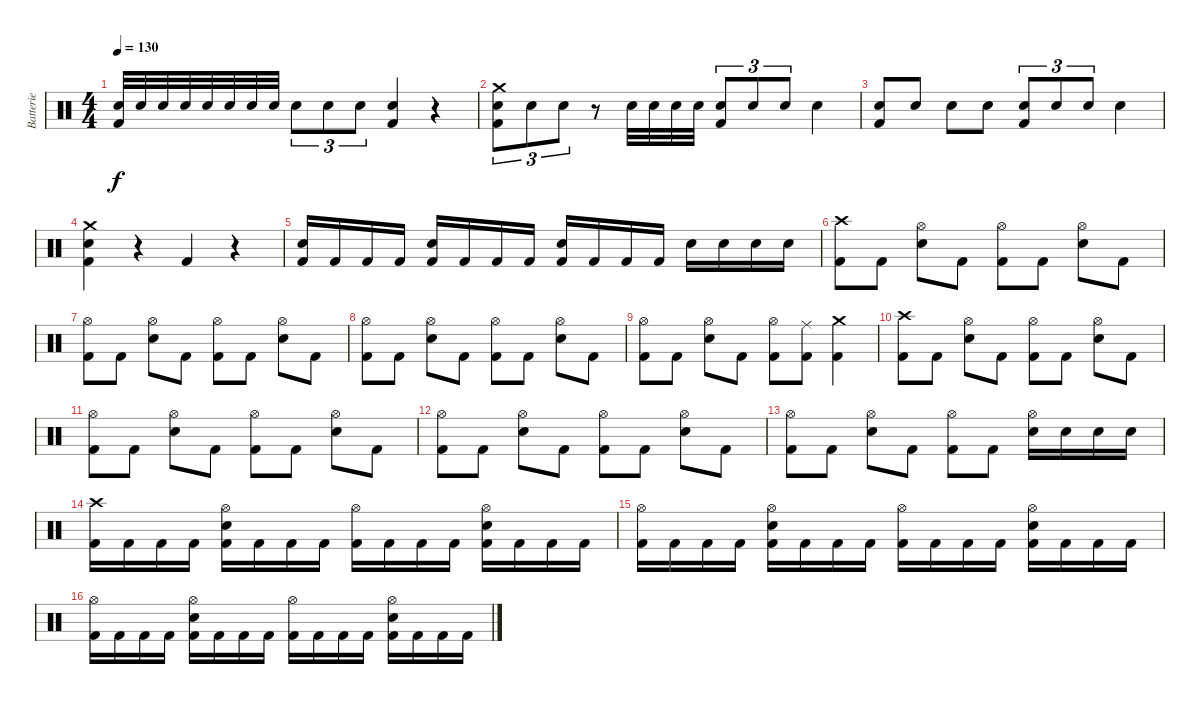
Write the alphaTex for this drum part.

\track ("Batterie" "Batterie") {instrument percussion}
\staff {score}
\articulation defaults
\ts (4 4)
\tempo 130
\clef neutral
\ks c
("Snare (hit) 2" "Kick (hit) 2").32{dy f} "Snare (hit) 2".32 "Snare (hit) 2".32 "Snare (hit) 2".32 "Snare (hit) 2".32 "Snare (hit) 2".32 "Snare (hit) 2".32 "Snare (hit) 2".32 "Snare (hit) 2".8{tu (3 2)} "Snare (hit) 2".8{tu (3 2)} "Snare (hit) 2".8{tu (3 2)} ("Snare (hit) 2" "Kick (hit) 2").4 r.4 |
("Crash medium (hit)" "Snare (hit) 2" "Kick (hit) 2").8{tu (3 2)} "Snare (hit) 2".8{tu (3 2)} "Snare (hit) 2".8{tu (3 2)} r.8 "Snare (hit) 2".32 "Snare (hit) 2".32 "Snare (hit) 2".32 "Snare (hit) 2".32 ("Snare (hit) 2" "Kick (hit) 2").8{tu (3 2)} "Snare (hit) 2".8{tu (3 2)} "Snare (hit) 2".8{tu (3 2)} "Snare (hit) 2".4 |
("Snare (hit) 2" "Kick (hit) 2").8 "Snare (hit) 2".8 "Snare (hit) 2".8 "Snare (hit) 2".8 ("Snare (hit) 2" "Kick (hit) 2").8{tu (3 2)} "Snare (hit) 2".8{tu (3 2)} "Snare (hit) 2".8{tu (3 2)} "Snare (hit) 2".4 |
("Crash medium (hit)" "Snare (hit) 2" "Kick (hit) 2").4 r.4 "Kick (hit) 2".4 r.4 |
("Snare (hit) 2" "Kick (hit) 2").16 "Kick (hit) 2".16 "Kick (hit) 2".16 "Kick (hit) 2".16 ("Snare (hit) 2" "Kick (hit) 2").16 "Kick (hit) 2".16 "Kick (hit) 2".16 "Kick (hit) 2".16 ("Snare (hit) 2" "Kick (hit) 2").16 "Kick (hit) 2".16 "Kick (hit) 2".16 "Kick (hit) 2".16 "Snare (hit) 2".16 "Snare (hit) 2".16 "Snare (hit) 2".16 "Snare (hit) 2".16 |
("Crash high (hit)" "Kick (hit) 2").8 "Kick (hit) 2".8 ("Hi-Hat (open)" "Snare (hit) 2").8 "Kick (hit) 2".8 ("Hi-Hat (open)" "Kick (hit) 2").8 "Kick (hit) 2".8 ("Hi-Hat (open)" "Snare (hit) 2").8 "Kick (hit) 2".8 |
("Hi-Hat (open)" "Kick (hit) 2").8 "Kick (hit) 2".8 ("Hi-Hat (open)" "Snare (hit) 2").8 "Kick (hit) 2".8 ("Hi-Hat (open)" "Kick (hit) 2").8 "Kick (hit) 2".8 ("Hi-Hat (open)" "Snare (hit) 2").8 "Kick (hit) 2".8 |
("Hi-Hat (open)" "Kick (hit) 2").8 "Kick (hit) 2".8 ("Hi-Hat (open)" "Snare (hit) 2").8 "Kick (hit) 2".8 ("Hi-Hat (open)" "Kick (hit) 2").8 "Kick (hit) 2".8 ("Hi-Hat (open)" "Snare (hit) 2").8 "Kick (hit) 2".8 |
("Hi-Hat (open)" "Kick (hit) 2").8 "Kick (hit) 2".8 ("Hi-Hat (open)" "Snare (hit) 2").8 "Kick (hit) 2".8 ("Hi-Hat (open)" "Kick (hit) 2").8 ("Ride (middle)" "Kick (hit) 2").8 ("Crash medium (hit)" "Kick (hit) 2").4 |
("Crash high (hit)" "Kick (hit) 2").8 "Kick (hit) 2".8 ("Hi-Hat (open)" "Snare (hit) 2").8 "Kick (hit) 2".8 ("Hi-Hat (open)" "Kick (hit) 2").8 "Kick (hit) 2".8 ("Hi-Hat (open)" "Snare (hit) 2").8 "Kick (hit) 2".8 |
("Hi-Hat (open)" "Kick (hit) 2").8 "Kick (hit) 2".8 ("Hi-Hat (open)" "Snare (hit) 2").8 "Kick (hit) 2".8 ("Hi-Hat (open)" "Kick (hit) 2").8 "Kick (hit) 2".8 ("Hi-Hat (open)" "Snare (hit) 2").8 "Kick (hit) 2".8 |
("Hi-Hat (open)" "Kick (hit) 2").8 "Kick (hit) 2".8 ("Hi-Hat (open)" "Snare (hit) 2").8 "Kick (hit) 2".8 ("Hi-Hat (open)" "Kick (hit) 2").8 "Kick (hit) 2".8 ("Hi-Hat (open)" "Snare (hit) 2").8 "Kick (hit) 2".8 |
("Hi-Hat (open)" "Kick (hit) 2").8 "Kick (hit) 2".8 ("Hi-Hat (open)" "Snare (hit) 2").8 "Kick (hit) 2".8 ("Hi-Hat (open)" "Kick (hit) 2").8 "Kick (hit) 2".8 ("Hi-Hat (open)" "Snare (hit) 2").16 "Snare (hit) 2".16 "Snare (hit) 2".16 "Snare (hit) 2".16 |
("Crash high (hit)" "Kick (hit) 2").16 "Kick (hit) 2".16 "Kick (hit) 2".16 "Kick (hit) 2".16 ("Hi-Hat (open)" "Snare (hit) 2" "Kick (hit) 2").16 "Kick (hit) 2".16 "Kick (hit) 2".16 "Kick (hit) 2".16 ("Hi-Hat (open)" "Kick (hit) 2").16 "Kick (hit) 2".16 "Kick (hit) 2".16 "Kick (hit) 2".16 ("Hi-Hat (open)" "Snare (hit) 2" "Kick (hit) 2").16 "Kick (hit) 2".16 "Kick (hit) 2".16 "Kick (hit) 2".16 |
("Hi-Hat (open)" "Kick (hit) 2").16 "Kick (hit) 2".16 "Kick (hit) 2".16 "Kick (hit) 2".16 ("Hi-Hat (open)" "Snare (hit) 2" "Kick (hit) 2").16 "Kick (hit) 2".16 "Kick (hit) 2".16 "Kick (hit) 2".16 ("Hi-Hat (open)" "Kick (hit) 2").16 "Kick (hit) 2".16 "Kick (hit) 2".16 "Kick (hit) 2".16 ("Hi-Hat (open)" "Snare (hit) 2" "Kick (hit) 2").16 "Kick (hit) 2".16 "Kick (hit) 2".16 "Kick (hit) 2".16 |
("Hi-Hat (open)" "Kick (hit) 2").16 "Kick (hit) 2".16 "Kick (hit) 2".16 "Kick (hit) 2".16 ("Hi-Hat (open)" "Snare (hit) 2" "Kick (hit) 2").16 "Kick (hit) 2".16 "Kick (hit) 2".16 "Kick (hit) 2".16 ("Hi-Hat (open)" "Kick (hit) 2").16 "Kick (hit) 2".16 "Kick (hit) 2".16 "Kick (hit) 2".16 ("Hi-Hat (open)" "Snare (hit) 2" "Kick (hit) 2").16 "Kick (hit) 2".16 "Kick (hit) 2".16 "Kick (hit) 2".16
